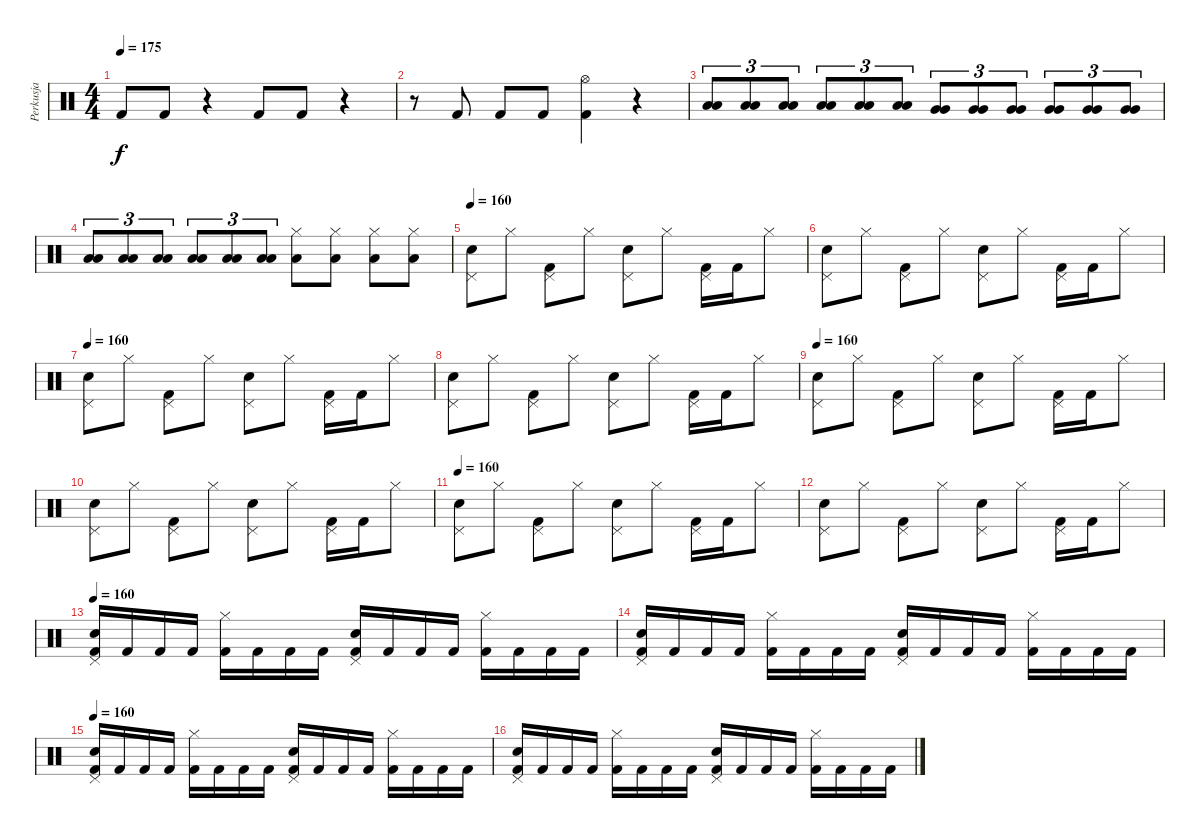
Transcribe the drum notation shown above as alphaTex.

\track ("Perkusja" "Perkusja") {instrument percussion}
\staff {score}
\articulation defaults
\ts (4 4)
\tempo 175
\clef neutral
\ks c "Kick (hit) 2".8{dy f} "Kick (hit) 2".8
r.4 "Kick (hit) 2".8 "Kick (hit) 2".8 r.4 |
r.8 "Kick (hit) 2".8 "Kick (hit) 2".8 "Kick (hit) 2".8 ("Kick (hit) 2" "Hi-Hat (open)").4 r.4 |
("Low Floor Tom (hit)" "Low Floor Tom (hit)").8{tu (3 2)} ("Low Floor Tom (hit)" "Low Floor Tom (hit)").8{tu (3 2)} ("Low Floor Tom (hit)" "Low Floor Tom (hit)").8{tu (3 2)} ("Low Floor Tom (hit)" "Low Floor Tom (hit)").8{tu (3 2)} ("Low Floor Tom (hit)" "Low Floor Tom (hit)").8{tu (3 2)} ("Low Floor Tom (hit)" "Low Floor Tom (hit)").8{tu (3 2)} ("Very Low Tom (hit)" "Very Low Tom (hit)").8{tu (3 2)} ("Very Low Tom (hit)" "Very Low Tom (hit)").8{tu (3 2)} ("Very Low Tom (hit)" "Very Low Tom (hit)").8{tu (3 2)} ("Very Low Tom (hit)" "Very Low Tom (hit)").8{tu (3 2)} ("Very Low Tom (hit)" "Very Low Tom (hit)").8{tu (3 2)} ("Very Low Tom (hit)" "Very Low Tom (hit)").8{tu (3 2)} |
("Low Tom (hit)" "Low Tom (hit)").8{tu (3 2)} ("Low Tom (hit)" "Low Tom (hit)").8{tu (3 2)} ("Low Tom (hit)" "Low Tom (hit)").8{tu (3 2)} ("Low Tom (hit)" "Low Tom (hit)").8{tu (3 2)} ("Low Tom (hit)" "Low Tom (hit)").8{tu (3 2)} ("Low Tom (hit)" "Low Tom (hit)").8{tu (3 2)} ("Hi-Hat (closed)" "Low Tom (hit)").8 ("Hi-Hat (closed)" "Low Tom (hit)").8 ("Hi-Hat (closed)" "Low Tom (hit)").8 ("Hi-Hat (closed)" "Low Tom (hit)").8 |
\tempo 160
("Snare (hit) 2" "Pedal Hi-Hat (hit)").8 "Hi-Hat (closed)".8 ("Kick (hit) 2" "Pedal Hi-Hat (hit)").8 "Hi-Hat (closed)".8 ("Snare (hit) 2" "Pedal Hi-Hat (hit)").8 "Hi-Hat (closed)".8 ("Kick (hit) 2" "Pedal Hi-Hat (hit)").16 "Kick (hit) 2".16 "Hi-Hat (closed)".8 |
("Snare (hit) 2" "Pedal Hi-Hat (hit)").8 "Hi-Hat (closed)".8 ("Kick (hit) 2" "Pedal Hi-Hat (hit)").8 "Hi-Hat (closed)".8 ("Snare (hit) 2" "Pedal Hi-Hat (hit)").8 "Hi-Hat (closed)".8 ("Kick (hit) 2" "Pedal Hi-Hat (hit)").16 "Kick (hit) 2".16 "Hi-Hat (closed)".8 |
\tempo 160
("Snare (hit) 2" "Pedal Hi-Hat (hit)").8 "Hi-Hat (closed)".8 ("Kick (hit) 2" "Pedal Hi-Hat (hit)").8 "Hi-Hat (closed)".8 ("Snare (hit) 2" "Pedal Hi-Hat (hit)").8 "Hi-Hat (closed)".8 ("Kick (hit) 2" "Pedal Hi-Hat (hit)").16 "Kick (hit) 2".16 "Hi-Hat (closed)".8 |
("Snare (hit) 2" "Pedal Hi-Hat (hit)").8 "Hi-Hat (closed)".8 ("Kick (hit) 2" "Pedal Hi-Hat (hit)").8 "Hi-Hat (closed)".8 ("Snare (hit) 2" "Pedal Hi-Hat (hit)").8 "Hi-Hat (closed)".8 ("Kick (hit) 2" "Pedal Hi-Hat (hit)").16 "Kick (hit) 2".16 "Hi-Hat (closed)".8 |
\tempo 160
("Snare (hit) 2" "Pedal Hi-Hat (hit)").8 "Hi-Hat (closed)".8 ("Kick (hit) 2" "Pedal Hi-Hat (hit)").8 "Hi-Hat (closed)".8 ("Snare (hit) 2" "Pedal Hi-Hat (hit)").8 "Hi-Hat (closed)".8 ("Kick (hit) 2" "Pedal Hi-Hat (hit)").16 "Kick (hit) 2".16 "Hi-Hat (closed)".8 |
("Snare (hit) 2" "Pedal Hi-Hat (hit)").8 "Hi-Hat (closed)".8 ("Kick (hit) 2" "Pedal Hi-Hat (hit)").8 "Hi-Hat (closed)".8 ("Snare (hit) 2" "Pedal Hi-Hat (hit)").8 "Hi-Hat (closed)".8 ("Kick (hit) 2" "Pedal Hi-Hat (hit)").16 "Kick (hit) 2".16 "Hi-Hat (closed)".8 |
\tempo 160
("Snare (hit) 2" "Pedal Hi-Hat (hit)").8 "Hi-Hat (closed)".8 ("Kick (hit) 2" "Pedal Hi-Hat (hit)").8 "Hi-Hat (closed)".8 ("Snare (hit) 2" "Pedal Hi-Hat (hit)").8 "Hi-Hat (closed)".8 ("Kick (hit) 2" "Pedal Hi-Hat (hit)").16 "Kick (hit) 2".16 "Hi-Hat (closed)".8 |
("Snare (hit) 2" "Pedal Hi-Hat (hit)").8 "Hi-Hat (closed)".8 ("Kick (hit) 2" "Pedal Hi-Hat (hit)").8 "Hi-Hat (closed)".8 ("Snare (hit) 2" "Pedal Hi-Hat (hit)").8 "Hi-Hat (closed)".8 ("Kick (hit) 2" "Pedal Hi-Hat (hit)").16 "Kick (hit) 2".16 "Hi-Hat (closed)".8 |
\tempo 160
("Snare (hit) 2" "Kick (hit) 2" "Pedal Hi-Hat (hit)").16 "Kick (hit) 2".16 "Kick (hit) 2".16 "Kick (hit) 2".16 ("Hi-Hat (closed)" "Kick (hit) 2").16 "Kick (hit) 2".16 "Kick (hit) 2".16 "Kick (hit) 2".16 ("Snare (hit) 2" "Kick (hit) 2" "Pedal Hi-Hat (hit)").16 "Kick (hit) 2".16 "Kick (hit) 2".16 "Kick (hit) 2".16 ("Hi-Hat (closed)" "Kick (hit) 2").16 "Kick (hit) 2".16 "Kick (hit) 2".16 "Kick (hit) 2".16 |
("Snare (hit) 2" "Kick (hit) 2" "Pedal Hi-Hat (hit)").16 "Kick (hit) 2".16 "Kick (hit) 2".16 "Kick (hit) 2".16 ("Hi-Hat (closed)" "Kick (hit) 2").16 "Kick (hit) 2".16 "Kick (hit) 2".16 "Kick (hit) 2".16 ("Snare (hit) 2" "Kick (hit) 2" "Pedal Hi-Hat (hit)").16 "Kick (hit) 2".16 "Kick (hit) 2".16 "Kick (hit) 2".16 ("Hi-Hat (closed)" "Kick (hit) 2").16 "Kick (hit) 2".16 "Kick (hit) 2".16 "Kick (hit) 2".16 |
\tempo 160
("Snare (hit) 2" "Kick (hit) 2" "Pedal Hi-Hat (hit)").16 "Kick (hit) 2".16 "Kick (hit) 2".16 "Kick (hit) 2".16 ("Hi-Hat (closed)" "Kick (hit) 2").16 "Kick (hit) 2".16 "Kick (hit) 2".16 "Kick (hit) 2".16 ("Snare (hit) 2" "Kick (hit) 2" "Pedal Hi-Hat (hit)").16 "Kick (hit) 2".16 "Kick (hit) 2".16 "Kick (hit) 2".16 ("Hi-Hat (closed)" "Kick (hit) 2").16 "Kick (hit) 2".16 "Kick (hit) 2".16 "Kick (hit) 2".16 |
("Snare (hit) 2" "Kick (hit) 2" "Pedal Hi-Hat (hit)").16 "Kick (hit) 2".16 "Kick (hit) 2".16 "Kick (hit) 2".16 ("Hi-Hat (closed)" "Kick (hit) 2").16 "Kick (hit) 2".16 "Kick (hit) 2".16 "Kick (hit) 2".16 ("Snare (hit) 2" "Kick (hit) 2" "Pedal Hi-Hat (hit)").16 "Kick (hit) 2".16 "Kick (hit) 2".16 "Kick (hit) 2".16 ("Hi-Hat (closed)" "Kick (hit) 2").16 "Kick (hit) 2".16 "Kick (hit) 2".16 "Kick (hit) 2".16
